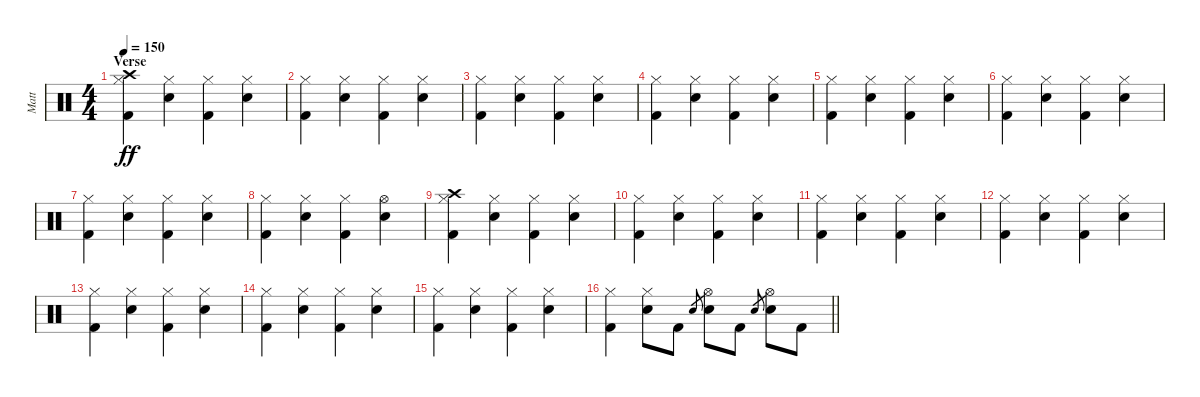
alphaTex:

\track ("Matt" "Matt") {instrument percussion}
\staff {score}
\articulation defaults
\ts (4 4)
\section ("" "Verse")
\tempo 150
\clef neutral
\ks c
("Hi-Hat (closed)" "Kick (hit) 2" "Crash high (hit)").4{dy ff} ("Hi-Hat (closed)" "Snare (hit) 2").4 ("Hi-Hat (closed)" "Kick (hit) 2").4 ("Hi-Hat (closed)" "Snare (hit) 2").4 |
("Hi-Hat (closed)" "Kick (hit) 2").4 ("Hi-Hat (closed)" "Snare (hit) 2").4 ("Hi-Hat (closed)" "Kick (hit) 2").4 ("Hi-Hat (closed)" "Snare (hit) 2").4 |
("Hi-Hat (closed)" "Kick (hit) 2").4 ("Hi-Hat (closed)" "Snare (hit) 2").4 ("Hi-Hat (closed)" "Kick (hit) 2").4 ("Hi-Hat (closed)" "Snare (hit) 2").4 |
("Hi-Hat (closed)" "Kick (hit) 2").4 ("Hi-Hat (closed)" "Snare (hit) 2").4 ("Hi-Hat (closed)" "Kick (hit) 2").4 ("Hi-Hat (closed)" "Snare (hit) 2").4 |
("Hi-Hat (closed)" "Kick (hit) 2").4 ("Hi-Hat (closed)" "Snare (hit) 2").4 ("Hi-Hat (closed)" "Kick (hit) 2").4 ("Hi-Hat (closed)" "Snare (hit) 2").4 |
("Hi-Hat (closed)" "Kick (hit) 2").4 ("Hi-Hat (closed)" "Snare (hit) 2").4 ("Hi-Hat (closed)" "Kick (hit) 2").4 ("Hi-Hat (closed)" "Snare (hit) 2").4 |
("Hi-Hat (closed)" "Kick (hit) 2").4 ("Hi-Hat (closed)" "Snare (hit) 2").4 ("Hi-Hat (closed)" "Kick (hit) 2").4 ("Hi-Hat (closed)" "Snare (hit) 2").4 |
("Hi-Hat (closed)" "Kick (hit) 2").4 ("Hi-Hat (closed)" "Snare (hit) 2").4 ("Hi-Hat (closed)" "Kick (hit) 2").4 ("Hi-Hat (open)" "Snare (hit) 2").4 |
("Hi-Hat (closed)" "Kick (hit) 2" "Crash high (hit)").4 ("Hi-Hat (closed)" "Snare (hit) 2").4 ("Hi-Hat (closed)" "Kick (hit) 2").4 ("Hi-Hat (closed)" "Snare (hit) 2").4 |
("Hi-Hat (closed)" "Kick (hit) 2").4 ("Hi-Hat (closed)" "Snare (hit) 2").4 ("Hi-Hat (closed)" "Kick (hit) 2").4 ("Hi-Hat (closed)" "Snare (hit) 2").4 |
("Hi-Hat (closed)" "Kick (hit) 2").4 ("Hi-Hat (closed)" "Snare (hit) 2").4 ("Hi-Hat (closed)" "Kick (hit) 2").4 ("Hi-Hat (closed)" "Snare (hit) 2").4 |
("Hi-Hat (closed)" "Kick (hit) 2").4 ("Hi-Hat (closed)" "Snare (hit) 2").4 ("Hi-Hat (closed)" "Kick (hit) 2").4 ("Hi-Hat (closed)" "Snare (hit) 2").4 |
("Hi-Hat (closed)" "Kick (hit) 2").4 ("Hi-Hat (closed)" "Snare (hit) 2").4 ("Hi-Hat (closed)" "Kick (hit) 2").4 ("Hi-Hat (closed)" "Snare (hit) 2").4 |
("Hi-Hat (closed)" "Kick (hit) 2").4 ("Hi-Hat (closed)" "Snare (hit) 2").4 ("Hi-Hat (closed)" "Kick (hit) 2").4 ("Hi-Hat (closed)" "Snare (hit) 2").4 |
("Hi-Hat (closed)" "Kick (hit) 2").4 ("Hi-Hat (closed)" "Snare (hit) 2").4 ("Hi-Hat (closed)" "Kick (hit) 2").4 ("Hi-Hat (closed)" "Snare (hit) 2").4 |
\barLineRight lightlight
("Hi-Hat (closed)" "Kick (hit) 2").4 ("Hi-Hat (closed)" "Snare (hit) 2").8 "Kick (hit) 2".8 "Snare (hit) 2".8{gr} ("Hi-Hat (open)" "Snare (hit) 2").8 "Kick (hit) 2".8 "Snare (hit) 2".8{gr} ("Hi-Hat (open)" "Snare (hit) 2").8 "Kick (hit) 2".8
